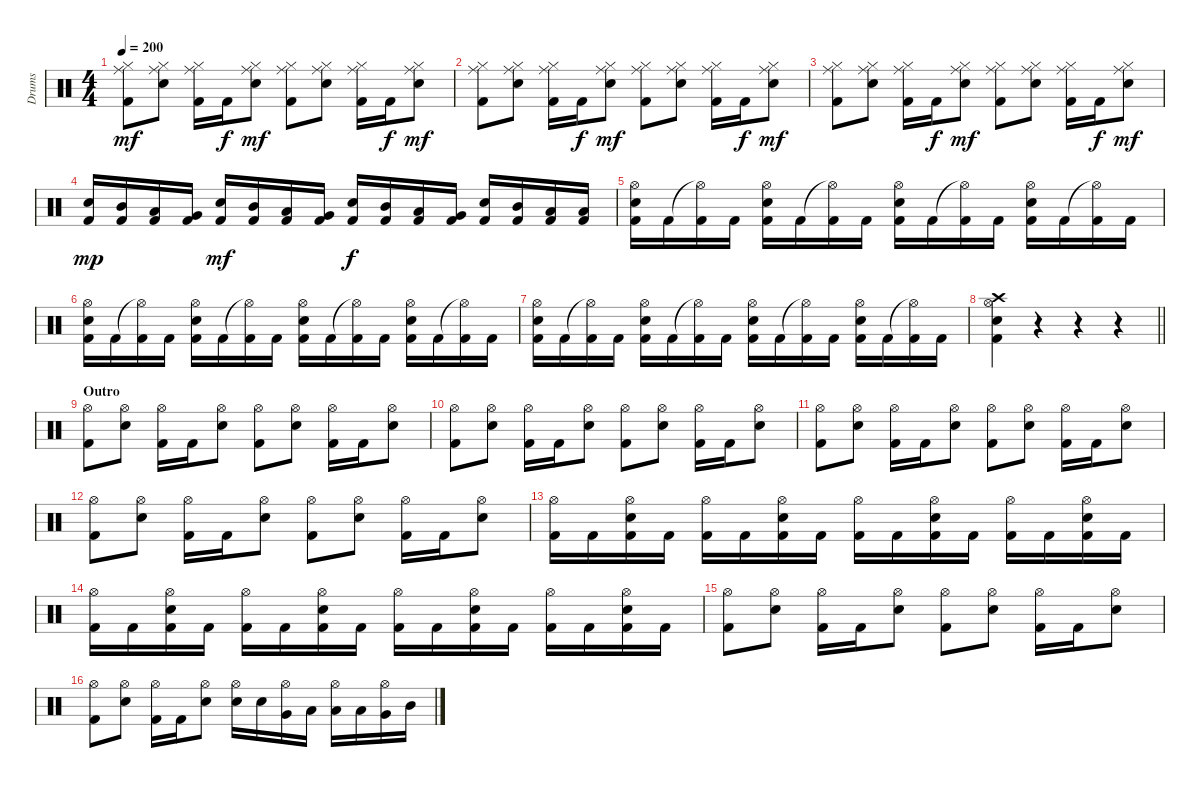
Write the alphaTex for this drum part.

\track ("Drums" "Drums") {instrument percussion}
\staff {score}
\articulation defaults
\ts (4 4)
\tempo 200
\clef neutral
\ks c
("Hi-Hat (closed)" "Ride (middle)" "Kick (hit) 2").8{dy mf} ("Hi-Hat (closed)" "Ride (middle)" "Snare (hit) 2").8 ("Hi-Hat (closed)" "Ride (middle)" "Kick (hit) 2").16 "Kick (hit) 2".16{dy f} ("Hi-Hat (closed)" "Ride (middle)" "Snare (hit) 2").8{dy mf} ("Hi-Hat (closed)" "Ride (middle)" "Kick (hit) 2").8 ("Hi-Hat (closed)" "Ride (middle)" "Snare (hit) 2").8 ("Hi-Hat (closed)" "Ride (middle)" "Kick (hit) 2").16 "Kick (hit) 2".16{dy f} ("Hi-Hat (closed)" "Ride (middle)" "Snare (hit) 2").8{dy mf} |
("Hi-Hat (closed)" "Ride (middle)" "Kick (hit) 2").8 ("Hi-Hat (closed)" "Ride (middle)" "Snare (hit) 2").8 ("Hi-Hat (closed)" "Ride (middle)" "Kick (hit) 2").16 "Kick (hit) 2".16{dy f} ("Hi-Hat (closed)" "Ride (middle)" "Snare (hit) 2").8{dy mf} ("Hi-Hat (closed)" "Ride (middle)" "Kick (hit) 2").8 ("Hi-Hat (closed)" "Ride (middle)" "Snare (hit) 2").8 ("Hi-Hat (closed)" "Ride (middle)" "Kick (hit) 2").16 "Kick (hit) 2".16{dy f} ("Hi-Hat (closed)" "Ride (middle)" "Snare (hit) 2").8{dy mf} |
("Hi-Hat (closed)" "Ride (middle)" "Kick (hit) 2").8 ("Hi-Hat (closed)" "Ride (middle)" "Snare (hit) 2").8 ("Hi-Hat (closed)" "Ride (middle)" "Kick (hit) 2").16 "Kick (hit) 2".16{dy f} ("Hi-Hat (closed)" "Ride (middle)" "Snare (hit) 2").8{dy mf} ("Hi-Hat (closed)" "Ride (middle)" "Kick (hit) 2").8 ("Hi-Hat (closed)" "Ride (middle)" "Snare (hit) 2").8 ("Hi-Hat (closed)" "Ride (middle)" "Kick (hit) 2").16 "Kick (hit) 2".16{dy f} ("Hi-Hat (closed)" "Ride (middle)" "Snare (hit) 2").8{dy mf} |
("Snare (hit) 2" "Kick (hit) 2").16{dy mp} ("Mid Tom (hit)" "Kick (hit) 2").16 ("Low Tom (hit)" "Kick (hit) 2").16 ("Very Low Tom (hit)" "Kick (hit) 2").16 ("Snare (hit) 2" "Kick (hit) 2").16{dy mf} ("Mid Tom (hit)" "Kick (hit) 2").16 ("Low Tom (hit)" "Kick (hit) 2").16 ("Very Low Tom (hit)" "Kick (hit) 2").16 ("Snare (hit) 2" "Kick (hit) 2").16{dy f} ("Mid Tom (hit)" "Kick (hit) 2").16 ("Low Tom (hit)" "Kick (hit) 2").16 ("Very Low Tom (hit)" "Kick (hit) 2").16 ("Snare (hit) 2" "Kick (hit) 2").16 ("Mid Tom (hit)" "Kick (hit) 2").16 ("Low Tom (hit)" "Kick (hit) 2").16 ("Low Floor Tom (hit)" "Kick (hit) 2").16 |
("Hi-Hat (open)" "Snare (hit) 2" "Kick (hit) 2").16 "Kick (hit) 2".16 ("Hi-Hat (open)"{t} "Kick (hit) 2").16 "Kick (hit) 2".16 ("Hi-Hat (open)" "Snare (hit) 2" "Kick (hit) 2").16 "Kick (hit) 2".16 ("Hi-Hat (open)"{t} "Kick (hit) 2").16 "Kick (hit) 2".16 ("Hi-Hat (open)" "Snare (hit) 2" "Kick (hit) 2").16 "Kick (hit) 2".16 ("Hi-Hat (open)"{t} "Kick (hit) 2").16 "Kick (hit) 2".16 ("Hi-Hat (open)" "Snare (hit) 2" "Kick (hit) 2").16 "Kick (hit) 2".16 ("Hi-Hat (open)"{t} "Kick (hit) 2").16 "Kick (hit) 2".16 |
("Hi-Hat (open)" "Snare (hit) 2" "Kick (hit) 2").16 "Kick (hit) 2".16 ("Hi-Hat (open)"{t} "Kick (hit) 2").16 "Kick (hit) 2".16 ("Hi-Hat (open)" "Snare (hit) 2" "Kick (hit) 2").16 "Kick (hit) 2".16 ("Hi-Hat (open)"{t} "Kick (hit) 2").16 "Kick (hit) 2".16 ("Hi-Hat (open)" "Snare (hit) 2" "Kick (hit) 2").16 "Kick (hit) 2".16 ("Hi-Hat (open)"{t} "Kick (hit) 2").16 "Kick (hit) 2".16 ("Hi-Hat (open)" "Snare (hit) 2" "Kick (hit) 2").16 "Kick (hit) 2".16 ("Hi-Hat (open)"{t} "Kick (hit) 2").16 "Kick (hit) 2".16 |
("Hi-Hat (open)" "Snare (hit) 2" "Kick (hit) 2").16 "Kick (hit) 2".16 ("Hi-Hat (open)"{t} "Kick (hit) 2").16 "Kick (hit) 2".16 ("Hi-Hat (open)" "Snare (hit) 2" "Kick (hit) 2").16 "Kick (hit) 2".16 ("Hi-Hat (open)"{t} "Kick (hit) 2").16 "Kick (hit) 2".16 ("Hi-Hat (open)" "Snare (hit) 2" "Kick (hit) 2").16 "Kick (hit) 2".16 ("Hi-Hat (open)"{t} "Kick (hit) 2").16 "Kick (hit) 2".16 ("Hi-Hat (open)" "Snare (hit) 2" "Kick (hit) 2").16 "Kick (hit) 2".16 ("Hi-Hat (open)"{t} "Kick (hit) 2").16 "Kick (hit) 2".16 |
\barLineRight lightlight
("Crash high (hit)" "Hi-Hat (open)" "Snare (hit) 2" "Kick (hit) 2").4 r.4 r.4 r.4 |
\section ("" "Outro")
("Hi-Hat (open)" "Kick (hit) 2").8 ("Hi-Hat (open)" "Snare (hit) 2").8 ("Hi-Hat (open)" "Kick (hit) 2").16 "Kick (hit) 2".16 ("Hi-Hat (open)" "Snare (hit) 2").8 ("Hi-Hat (open)" "Kick (hit) 2").8 ("Hi-Hat (open)" "Snare (hit) 2").8 ("Hi-Hat (open)" "Kick (hit) 2").16 "Kick (hit) 2".16 ("Hi-Hat (open)" "Snare (hit) 2").8 |
("Hi-Hat (open)" "Kick (hit) 2").8 ("Hi-Hat (open)" "Snare (hit) 2").8 ("Hi-Hat (open)" "Kick (hit) 2").16 "Kick (hit) 2".16 ("Hi-Hat (open)" "Snare (hit) 2").8 ("Hi-Hat (open)" "Kick (hit) 2").8 ("Hi-Hat (open)" "Snare (hit) 2").8 ("Hi-Hat (open)" "Kick (hit) 2").16 "Kick (hit) 2".16 ("Hi-Hat (open)" "Snare (hit) 2").8 |
("Hi-Hat (open)" "Kick (hit) 2").8 ("Hi-Hat (open)" "Snare (hit) 2").8 ("Hi-Hat (open)" "Kick (hit) 2").16 "Kick (hit) 2".16 ("Hi-Hat (open)" "Snare (hit) 2").8 ("Hi-Hat (open)" "Kick (hit) 2").8 ("Hi-Hat (open)" "Snare (hit) 2").8 ("Hi-Hat (open)" "Kick (hit) 2").16 "Kick (hit) 2".16 ("Hi-Hat (open)" "Snare (hit) 2").8 |
("Hi-Hat (open)" "Kick (hit) 2").8 ("Hi-Hat (open)" "Snare (hit) 2").8 ("Hi-Hat (open)" "Kick (hit) 2").16 "Kick (hit) 2".16 ("Hi-Hat (open)" "Snare (hit) 2").8 ("Hi-Hat (open)" "Kick (hit) 2").8 ("Hi-Hat (open)" "Snare (hit) 2").8 ("Hi-Hat (open)" "Kick (hit) 2").16 "Kick (hit) 2".16 ("Hi-Hat (open)" "Snare (hit) 2").8 |
("Hi-Hat (open)" "Kick (hit) 2").16 "Kick (hit) 2".16 ("Hi-Hat (open)" "Snare (hit) 2" "Kick (hit) 2").16 "Kick (hit) 2".16 ("Hi-Hat (open)" "Kick (hit) 2").16 "Kick (hit) 2".16 ("Hi-Hat (open)" "Snare (hit) 2" "Kick (hit) 2").16 "Kick (hit) 2".16 ("Hi-Hat (open)" "Kick (hit) 2").16 "Kick (hit) 2".16 ("Hi-Hat (open)" "Snare (hit) 2" "Kick (hit) 2").16 "Kick (hit) 2".16 ("Hi-Hat (open)" "Kick (hit) 2").16 "Kick (hit) 2".16 ("Hi-Hat (open)" "Snare (hit) 2" "Kick (hit) 2").16 "Kick (hit) 2".16 |
("Hi-Hat (open)" "Kick (hit) 2").16 "Kick (hit) 2".16 ("Hi-Hat (open)" "Snare (hit) 2" "Kick (hit) 2").16 "Kick (hit) 2".16 ("Hi-Hat (open)" "Kick (hit) 2").16 "Kick (hit) 2".16 ("Hi-Hat (open)" "Snare (hit) 2" "Kick (hit) 2").16 "Kick (hit) 2".16 ("Hi-Hat (open)" "Kick (hit) 2").16 "Kick (hit) 2".16 ("Hi-Hat (open)" "Snare (hit) 2" "Kick (hit) 2").16 "Kick (hit) 2".16 ("Hi-Hat (open)" "Kick (hit) 2").16 "Kick (hit) 2".16 ("Hi-Hat (open)" "Snare (hit) 2" "Kick (hit) 2").16 "Kick (hit) 2".16 |
("Hi-Hat (open)" "Kick (hit) 2").8 ("Hi-Hat (open)" "Snare (hit) 2").8 ("Hi-Hat (open)" "Kick (hit) 2").16 "Kick (hit) 2".16 ("Hi-Hat (open)" "Snare (hit) 2").8 ("Hi-Hat (open)" "Kick (hit) 2").8 ("Hi-Hat (open)" "Snare (hit) 2").8 ("Hi-Hat (open)" "Kick (hit) 2").16 "Kick (hit) 2".16 ("Hi-Hat (open)" "Snare (hit) 2").8 |
("Hi-Hat (open)" "Kick (hit) 2").8 ("Hi-Hat (open)" "Snare (hit) 2").8 ("Hi-Hat (open)" "Kick (hit) 2").16 "Kick (hit) 2".16 ("Hi-Hat (open)" "Snare (hit) 2").8 ("Hi-Hat (open)" "Snare (hit) 2").16 "Snare (hit) 2".16 ("Hi-Hat (open)" "Very Low Tom (hit)").16 "Low Tom (hit)".16 ("Hi-Hat (open)" "Low Floor Tom (hit)").16 "Low Tom (hit)".16 ("Hi-Hat (open)" "Very Low Tom (hit)").16 "Mid Tom (hit)".16
